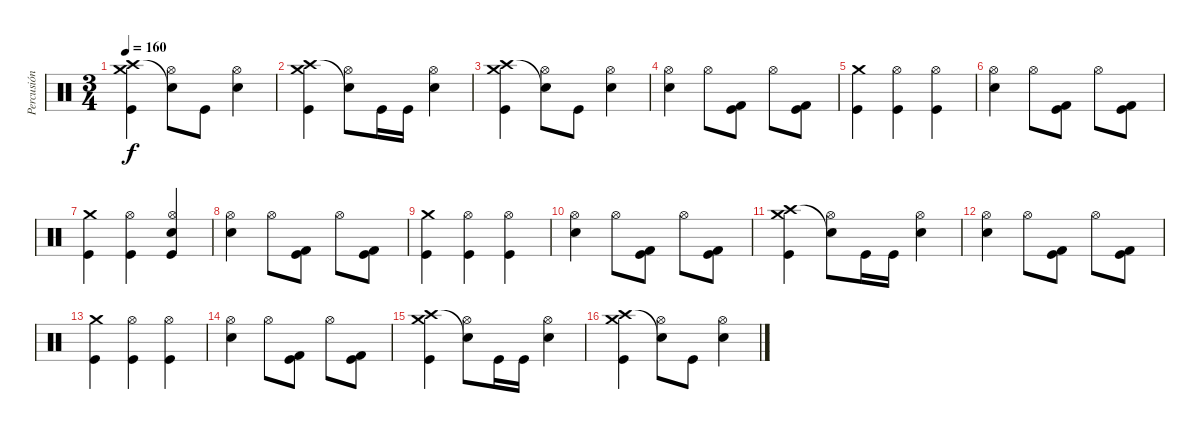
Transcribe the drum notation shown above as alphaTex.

\track ("Percusión" "Percusión") {instrument percussion}
\staff {score}
\articulation defaults
\ts (3 4)
\tempo 160
\clef neutral
\ks c
("Crash medium (hit)" "Crash high (hit)" "Kick (hit)").4{dy f} ("Hi-Hat (open)" "Snare (hit)"{t}).8 "Kick (hit)".8 ("Hi-Hat (open)" "Electric Snare (hit)").4 |
("Crash medium (hit)" "Crash high (hit)" "Kick (hit)").4 ("Hi-Hat (open)" "Snare (hit)"{t}).8 "Kick (hit)".16 "Kick (hit)".16 ("Hi-Hat (open)" "Electric Snare (hit)").4 |
("Crash medium (hit)" "Crash high (hit)" "Kick (hit)").4 ("Hi-Hat (open)" "Snare (hit)"{t}).8 "Kick (hit)".8 ("Hi-Hat (open)" "Electric Snare (hit)").4 |
("Hi-Hat (open)" "Electric Snare (hit)").4 "Hi-Hat (open)".8 ("Kick (hit) 2" "Kick (hit)").8 "Hi-Hat (open)".8 ("Kick (hit) 2" "Kick (hit)").8 |
("Crash medium (hit)" "Kick (hit)").4 ("Hi-Hat (open)" "Kick (hit)").4 ("Hi-Hat (open)" "Kick (hit)").4 |
("Hi-Hat (open)" "Electric Snare (hit)").4 "Hi-Hat (open)".8 ("Kick (hit) 2" "Kick (hit)").8 "Hi-Hat (open)".8 ("Kick (hit) 2" "Kick (hit)").8 |
("Crash medium (hit)" "Kick (hit)").4 ("Hi-Hat (open)" "Kick (hit)").4 ("Hi-Hat (open)" "Electric Snare (hit)" "Kick (hit)").4 |
("Hi-Hat (open)" "Electric Snare (hit)").4 "Hi-Hat (open)".8 ("Kick (hit) 2" "Kick (hit)").8 "Hi-Hat (open)".8 ("Kick (hit) 2" "Kick (hit)").8 |
("Crash medium (hit)" "Kick (hit)").4 ("Hi-Hat (open)" "Kick (hit)").4 ("Hi-Hat (open)" "Kick (hit)").4 |
("Hi-Hat (open)" "Electric Snare (hit)").4 "Hi-Hat (open)".8 ("Kick (hit) 2" "Kick (hit)").8 "Hi-Hat (open)".8 ("Kick (hit) 2" "Kick (hit)").8 |
("Crash medium (hit)" "Crash high (hit)" "Kick (hit)").4 ("Hi-Hat (open)" "Snare (hit)"{t}).8 "Kick (hit)".16 "Kick (hit)".16 ("Hi-Hat (open)" "Electric Snare (hit)").4 |
("Hi-Hat (open)" "Electric Snare (hit)").4 "Hi-Hat (open)".8 ("Kick (hit) 2" "Kick (hit)").8 "Hi-Hat (open)".8 ("Kick (hit) 2" "Kick (hit)").8 |
("Crash medium (hit)" "Kick (hit)").4 ("Hi-Hat (open)" "Kick (hit)").4 ("Hi-Hat (open)" "Kick (hit)").4 |
("Hi-Hat (open)" "Electric Snare (hit)").4 "Hi-Hat (open)".8 ("Kick (hit) 2" "Kick (hit)").8 "Hi-Hat (open)".8 ("Kick (hit) 2" "Kick (hit)").8 |
("Crash medium (hit)" "Crash high (hit)" "Kick (hit)").4 ("Hi-Hat (open)" "Snare (hit)"{t}).8 "Kick (hit)".16 "Kick (hit)".16 ("Hi-Hat (open)" "Electric Snare (hit)").4 |
("Crash medium (hit)" "Crash high (hit)" "Kick (hit)").4 ("Hi-Hat (open)" "Snare (hit)"{t}).8 "Kick (hit)".8 ("Hi-Hat (open)" "Electric Snare (hit)").4
